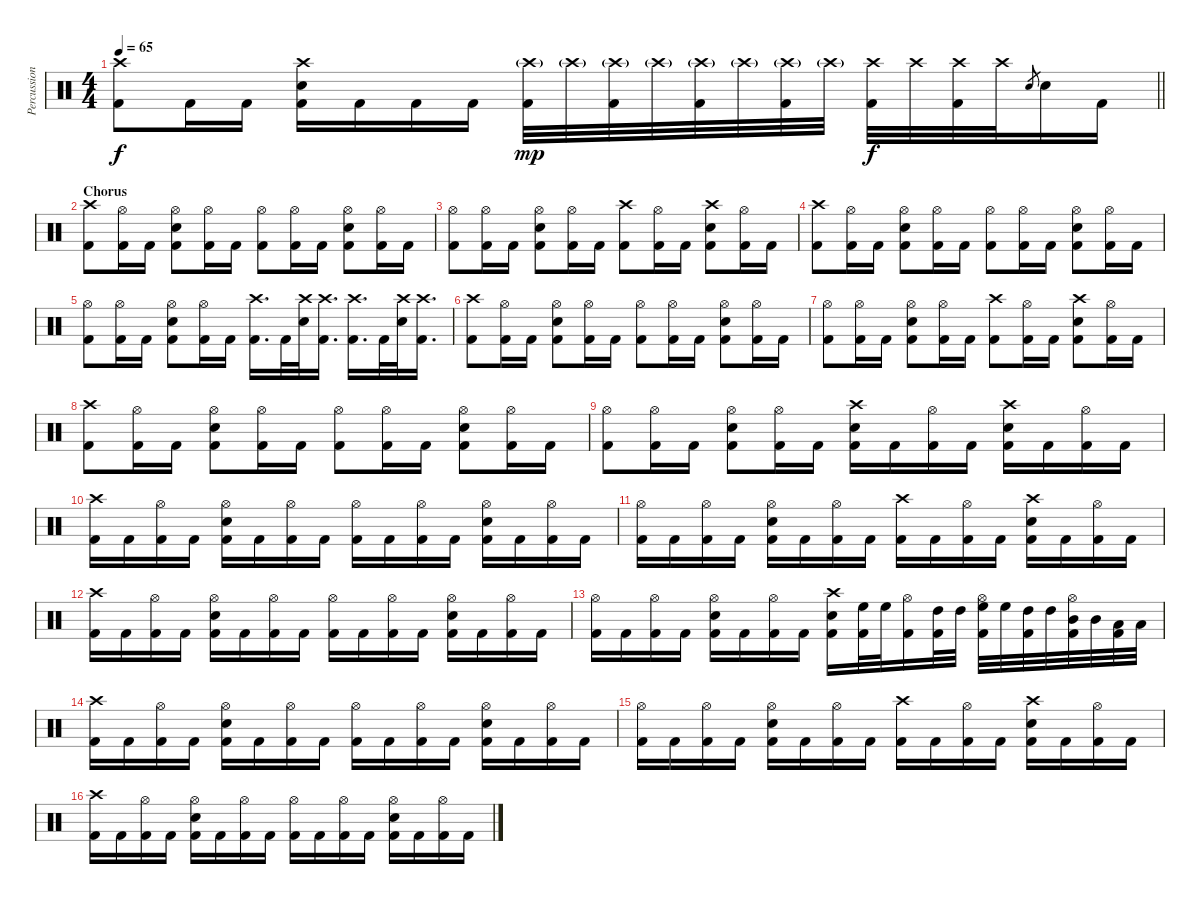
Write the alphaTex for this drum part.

\track ("Percussion" "Percussion") {instrument percussion}
\staff {score}
\articulation defaults
\ts (4 4)
\tempo 65
\clef neutral
\barLineRight lightlight
\ks c
("Crash high (hit)" "Kick (hit) 2").8{dy f} "Kick (hit) 2".16 "Kick (hit) 2".16 ("Crash high (hit)" "Snare (hit) 2" "Kick (hit) 2").16 "Kick (hit) 2".16 "Kick (hit) 2".16 "Kick (hit) 2".16 ("Crash high (hit)"{g} "Kick (hit) 2").32{dy mp} "Crash high (hit)"{g}.32 ("Crash high (hit)"{g} "Kick (hit) 2").32 "Crash high (hit)"{g}.32 ("Crash high (hit)"{g} "Kick (hit) 2").32 "Crash high (hit)"{g}.32 ("Crash high (hit)"{g} "Kick (hit) 2").32 "Crash high (hit)"{g}.32 ("Crash high (hit)" "Kick (hit) 2").32{dy f} "Crash high (hit)".32 ("Crash high (hit)" "Kick (hit) 2").32 "Crash high (hit)".32 "Snare (hit) 2".8{gr} "Snare (hit) 2".16 "Kick (hit) 2".16 |
\section ("" "Chorus")
("Crash high (hit)" "Kick (hit) 2").8 ("Hi-Hat (open)" "Kick (hit) 2").16 "Kick (hit) 2".16 ("Hi-Hat (open)" "Snare (hit) 2" "Kick (hit) 2").8 ("Hi-Hat (open)" "Kick (hit) 2").16 "Kick (hit) 2".16 ("Hi-Hat (open)" "Kick (hit) 2").8 ("Hi-Hat (open)" "Kick (hit) 2").16 "Kick (hit) 2".16 ("Hi-Hat (open)" "Snare (hit) 2" "Kick (hit) 2").8 ("Hi-Hat (open)" "Kick (hit) 2").16 "Kick (hit) 2".16 |
("Hi-Hat (open)" "Kick (hit) 2").8 ("Hi-Hat (open)" "Kick (hit) 2").16 "Kick (hit) 2".16 ("Hi-Hat (open)" "Snare (hit) 2" "Kick (hit) 2").8 ("Hi-Hat (open)" "Kick (hit) 2").16 "Kick (hit) 2".16 ("Crash high (hit)" "Kick (hit) 2").8 ("Hi-Hat (open)" "Kick (hit) 2").16 "Kick (hit) 2".16 ("Crash high (hit)" "Snare (hit) 2" "Kick (hit) 2").8 ("Hi-Hat (open)" "Kick (hit) 2").16 "Kick (hit) 2".16 |
("Crash high (hit)" "Kick (hit) 2").8 ("Hi-Hat (open)" "Kick (hit) 2").16 "Kick (hit) 2".16 ("Hi-Hat (open)" "Snare (hit) 2" "Kick (hit) 2").8 ("Hi-Hat (open)" "Kick (hit) 2").16 "Kick (hit) 2".16 ("Hi-Hat (open)" "Kick (hit) 2").8 ("Hi-Hat (open)" "Kick (hit) 2").16 "Kick (hit) 2".16 ("Hi-Hat (open)" "Snare (hit) 2" "Kick (hit) 2").8 ("Hi-Hat (open)" "Kick (hit) 2").16 "Kick (hit) 2".16 |
("Hi-Hat (open)" "Kick (hit) 2").8 ("Hi-Hat (open)" "Kick (hit) 2").16 "Kick (hit) 2".16 ("Hi-Hat (open)" "Snare (hit) 2" "Kick (hit) 2").8 ("Hi-Hat (open)" "Kick (hit) 2").16 "Kick (hit) 2".16 ("Crash high (hit)" "Kick (hit) 2").16{d} "Kick (hit) 2".32 ("Crash high (hit)" "Snare (hit) 2").32 ("Crash high (hit)" "Kick (hit) 2").16{d} ("Crash high (hit)" "Kick (hit) 2").16{d} "Kick (hit) 2".32 ("Crash high (hit)" "Snare (hit) 2").32 ("Crash high (hit)" "Kick (hit) 2").16{d} |
("Crash high (hit)" "Kick (hit) 2").8 ("Hi-Hat (open)" "Kick (hit) 2").16 "Kick (hit) 2".16 ("Hi-Hat (open)" "Snare (hit) 2" "Kick (hit) 2").8 ("Hi-Hat (open)" "Kick (hit) 2").16 "Kick (hit) 2".16 ("Hi-Hat (open)" "Kick (hit) 2").8 ("Hi-Hat (open)" "Kick (hit) 2").16 "Kick (hit) 2".16 ("Hi-Hat (open)" "Snare (hit) 2" "Kick (hit) 2").8 ("Hi-Hat (open)" "Kick (hit) 2").16 "Kick (hit) 2".16 |
("Hi-Hat (open)" "Kick (hit) 2").8 ("Hi-Hat (open)" "Kick (hit) 2").16 "Kick (hit) 2".16 ("Hi-Hat (open)" "Snare (hit) 2" "Kick (hit) 2").8 ("Hi-Hat (open)" "Kick (hit) 2").16 "Kick (hit) 2".16 ("Crash high (hit)" "Kick (hit) 2").8 ("Hi-Hat (open)" "Kick (hit) 2").16 "Kick (hit) 2".16 ("Crash high (hit)" "Snare (hit) 2" "Kick (hit) 2").8 ("Hi-Hat (open)" "Kick (hit) 2").16 "Kick (hit) 2".16 |
("Crash high (hit)" "Kick (hit) 2").8 ("Hi-Hat (open)" "Kick (hit) 2").16 "Kick (hit) 2".16 ("Hi-Hat (open)" "Snare (hit) 2" "Kick (hit) 2").8 ("Hi-Hat (open)" "Kick (hit) 2").16 "Kick (hit) 2".16 ("Hi-Hat (open)" "Kick (hit) 2").8 ("Hi-Hat (open)" "Kick (hit) 2").16 "Kick (hit) 2".16 ("Hi-Hat (open)" "Snare (hit) 2" "Kick (hit) 2").8 ("Hi-Hat (open)" "Kick (hit) 2").16 "Kick (hit) 2".16 |
("Hi-Hat (open)" "Kick (hit) 2").8 ("Hi-Hat (open)" "Kick (hit) 2").16 "Kick (hit) 2".16 ("Hi-Hat (open)" "Snare (hit) 2" "Kick (hit) 2").8 ("Hi-Hat (open)" "Kick (hit) 2").16 "Kick (hit) 2".16 ("Crash high (hit)" "Snare (hit) 2" "Kick (hit) 2").16 "Kick (hit) 2".16 ("Hi-Hat (open)" "Kick (hit) 2").16 "Kick (hit) 2".16 ("Crash high (hit)" "Snare (hit) 2" "Kick (hit) 2").16 "Kick (hit) 2".16 ("Hi-Hat (open)" "Kick (hit) 2").16 "Kick (hit) 2".16 |
("Crash high (hit)" "Kick (hit) 2").16 "Kick (hit) 2".16 ("Hi-Hat (open)" "Kick (hit) 2").16 "Kick (hit) 2".16 ("Hi-Hat (open)" "Snare (hit) 2" "Kick (hit) 2").16 "Kick (hit) 2".16 ("Hi-Hat (open)" "Kick (hit) 2").16 "Kick (hit) 2".16 ("Hi-Hat (open)" "Kick (hit) 2").16 "Kick (hit) 2".16 ("Hi-Hat (open)" "Kick (hit) 2").16 "Kick (hit) 2".16 ("Hi-Hat (open)" "Snare (hit) 2" "Kick (hit) 2").16 "Kick (hit) 2".16 ("Hi-Hat (open)" "Kick (hit) 2").16 "Kick (hit) 2".16 |
("Hi-Hat (open)" "Kick (hit) 2").16 "Kick (hit) 2".16 ("Hi-Hat (open)" "Kick (hit) 2").16 "Kick (hit) 2".16 ("Hi-Hat (open)" "Snare (hit) 2" "Kick (hit) 2").16 "Kick (hit) 2".16 ("Hi-Hat (open)" "Kick (hit) 2").16 "Kick (hit) 2".16 ("Crash high (hit)" "Kick (hit) 2").16 "Kick (hit) 2".16 ("Hi-Hat (open)" "Kick (hit) 2").16 "Kick (hit) 2".16 ("Crash high (hit)" "Snare (hit) 2" "Kick (hit) 2").16 "Kick (hit) 2".16 ("Hi-Hat (open)" "Kick (hit) 2").16 "Kick (hit) 2".16 |
("Crash high (hit)" "Kick (hit) 2").16 "Kick (hit) 2".16 ("Hi-Hat (open)" "Kick (hit) 2").16 "Kick (hit) 2".16 ("Hi-Hat (open)" "Snare (hit) 2" "Kick (hit) 2").16 "Kick (hit) 2".16 ("Hi-Hat (open)" "Kick (hit) 2").16 "Kick (hit) 2".16 ("Hi-Hat (open)" "Kick (hit) 2").16 "Kick (hit) 2".16 ("Hi-Hat (open)" "Kick (hit) 2").16 "Kick (hit) 2".16 ("Hi-Hat (open)" "Snare (hit) 2" "Kick (hit) 2").16 "Kick (hit) 2".16 ("Hi-Hat (open)" "Kick (hit) 2").16 "Kick (hit) 2".16 |
("Hi-Hat (open)" "Kick (hit) 2").16 "Kick (hit) 2".16 ("Hi-Hat (open)" "Kick (hit) 2").16 "Kick (hit) 2".16 ("Hi-Hat (open)" "Snare (hit) 2" "Kick (hit) 2").16 "Kick (hit) 2".16 ("Hi-Hat (open)" "Kick (hit) 2").16 "Kick (hit) 2".16 ("Crash high (hit)" "Snare (hit) 2" "Kick (hit) 2").16 ("High Floor Tom (hit)" "Kick (hit) 2").32 "High Floor Tom (hit)".32 ("Hi-Hat (open)" "Kick (hit) 2").16 ("High Tom (hit)" "Kick (hit) 2").32 "High Tom (hit)".32 ("Hi-Hat (open)" "High Floor Tom (hit)" "Kick (hit) 2").32 "High Floor Tom (hit)".32 ("High Tom (hit)" "Kick (hit) 2").32 "High Tom (hit)".32 ("Hi-Hat (open)" "Mid Tom (hit)" "Kick (hit) 2").32 "Mid Tom (hit)".32 ("Low Tom (hit)" "Kick (hit) 2").32 "Low Tom (hit)".32 |
("Crash high (hit)" "Kick (hit) 2").16 "Kick (hit) 2".16 ("Hi-Hat (open)" "Kick (hit) 2").16 "Kick (hit) 2".16 ("Hi-Hat (open)" "Snare (hit) 2" "Kick (hit) 2").16 "Kick (hit) 2".16 ("Hi-Hat (open)" "Kick (hit) 2").16 "Kick (hit) 2".16 ("Hi-Hat (open)" "Kick (hit) 2").16 "Kick (hit) 2".16 ("Hi-Hat (open)" "Kick (hit) 2").16 "Kick (hit) 2".16 ("Hi-Hat (open)" "Snare (hit) 2" "Kick (hit) 2").16 "Kick (hit) 2".16 ("Hi-Hat (open)" "Kick (hit) 2").16 "Kick (hit) 2".16 |
("Hi-Hat (open)" "Kick (hit) 2").16 "Kick (hit) 2".16 ("Hi-Hat (open)" "Kick (hit) 2").16 "Kick (hit) 2".16 ("Hi-Hat (open)" "Snare (hit) 2" "Kick (hit) 2").16 "Kick (hit) 2".16 ("Hi-Hat (open)" "Kick (hit) 2").16 "Kick (hit) 2".16 ("Crash high (hit)" "Kick (hit) 2").16 "Kick (hit) 2".16 ("Hi-Hat (open)" "Kick (hit) 2").16 "Kick (hit) 2".16 ("Crash high (hit)" "Snare (hit) 2" "Kick (hit) 2").16 "Kick (hit) 2".16 ("Hi-Hat (open)" "Kick (hit) 2").16 "Kick (hit) 2".16 |
("Crash high (hit)" "Kick (hit) 2").16 "Kick (hit) 2".16 ("Hi-Hat (open)" "Kick (hit) 2").16 "Kick (hit) 2".16 ("Hi-Hat (open)" "Snare (hit) 2" "Kick (hit) 2").16 "Kick (hit) 2".16 ("Hi-Hat (open)" "Kick (hit) 2").16 "Kick (hit) 2".16 ("Hi-Hat (open)" "Kick (hit) 2").16 "Kick (hit) 2".16 ("Hi-Hat (open)" "Kick (hit) 2").16 "Kick (hit) 2".16 ("Hi-Hat (open)" "Snare (hit) 2" "Kick (hit) 2").16 "Kick (hit) 2".16 ("Hi-Hat (open)" "Kick (hit) 2").16 "Kick (hit) 2".16
